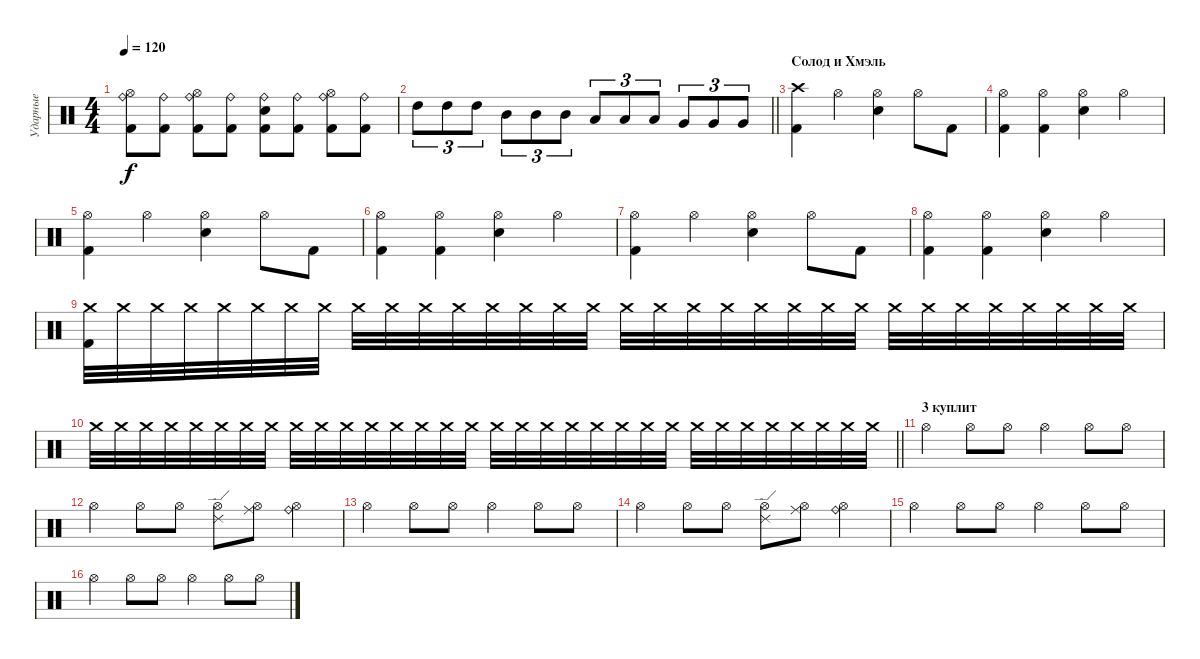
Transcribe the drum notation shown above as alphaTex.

\track ("Ударные" "Ударные") {instrument percussion}
\staff {score}
\articulation defaults
\ts (4 4)
\tempo 120
\clef neutral
\ks c
("Kick (hit) 2" "Ride (bell)" "Hi-Hat (open)").8{dy f} ("Kick (hit) 2" "Ride (bell)").8 ("Kick (hit) 2" "Ride (bell)" "Hi-Hat (open)").8 ("Kick (hit) 2" "Ride (bell)").8 ("Kick (hit) 2" "Ride (bell)" "Snare (hit) 2").8 ("Kick (hit) 2" "Ride (bell)").8 ("Kick (hit) 2" "Ride (bell)" "Hi-Hat (open)").8 ("Kick (hit) 2" "Ride (bell)").8 |
\barLineRight lightlight "High Tom (hit)".8{tu (3 2) volume 16} "High Tom (hit)".8{tu (3 2)} "High Tom (hit)".8{tu (3 2)} "Mid Tom (hit)".8{tu (3 2)} "Mid Tom (hit)".8{tu (3 2)} "Mid Tom (hit)".8{tu (3 2)} "Low Tom (hit)".8{tu (3 2)} "Low Tom (hit)".8{tu (3 2)} "Low Tom (hit)".8{tu (3 2)} "Very Low Tom (hit)".8{tu (3 2)} "Very Low Tom (hit)".8{tu (3 2)} "Very Low Tom (hit)".8{tu (3 2)}
|
\section ("" "Солод и Хмэль")
("Kick (hit) 2" "Crash high (hit)").4{volume 16} "Hi-Hat (open)".4 ("Snare (hit) 2" "Hi-Hat (open)").4 "Hi-Hat (open)".8 "Kick (hit) 2".8 |
("Kick (hit) 2" "Hi-Hat (open)").4 ("Kick (hit) 2" "Hi-Hat (open)").4 ("Snare (hit) 2" "Hi-Hat (open)").4 "Hi-Hat (open)".4 |
("Kick (hit) 2" "Hi-Hat (open)").4 "Hi-Hat (open)".4 ("Snare (hit) 2" "Hi-Hat (open)").4 "Hi-Hat (open)".8 "Kick (hit) 2".8 |
("Kick (hit) 2" "Hi-Hat (open)").4 ("Kick (hit) 2" "Hi-Hat (open)").4 ("Snare (hit) 2" "Hi-Hat (open)").4 "Hi-Hat (open)".4 |
("Hi-Hat (open)" "Kick (hit) 2").4 "Hi-Hat (open)".4 ("Snare (hit) 2" "Hi-Hat (open)").4 "Hi-Hat (open)".8 "Kick (hit) 2".8 |
("Kick (hit) 2" "Hi-Hat (open)").4 ("Kick (hit) 2" "Hi-Hat (open)").4 ("Snare (hit) 2" "Hi-Hat (open)").4 "Hi-Hat (open)".4 |
("Crash medium (hit)" "Kick (hit) 2").32{volume 1} "Crash medium (hit)".32 "Crash medium (hit)".32 "Crash medium (hit)".32{volume 3} "Crash medium (hit)".32 "Crash medium (hit)".32 "Crash medium (hit)".32{volume 4} "Crash medium (hit)".32 "Crash medium (hit)".32 "Crash medium (hit)".32{volume 5} "Crash medium (hit)".32 "Crash medium (hit)".32 "Crash medium (hit)".32{volume 6} "Crash medium (hit)".32 "Crash medium (hit)".32 "Crash medium (hit)".32{volume 7} "Crash medium (hit)".32 "Crash medium (hit)".32 "Crash medium (hit)".32 "Crash medium (hit)".32{volume 7} "Crash medium (hit)".32 "Crash medium (hit)".32 "Crash medium (hit)".32 "Crash medium (hit)".32{volume 8} "Crash medium (hit)".32 "Crash medium (hit)".32 "Crash medium (hit)".32 "Crash medium (hit)".32{volume 9} "Crash medium (hit)".32 "Crash medium (hit)".32 "Crash medium (hit)".32 "Crash medium (hit)".32{volume 9} |
\barLineRight lightlight "Crash medium (hit)".32 "Crash medium (hit)".32 "Crash medium (hit)".32 "Crash medium (hit)".32{volume 10} "Crash medium (hit)".32 "Crash medium (hit)".32 "Crash medium (hit)".32 "Crash medium (hit)".32{volume 10} "Crash medium (hit)".32 "Crash medium (hit)".32 "Crash medium (hit)".32 "Crash medium (hit)".32{volume 13} "Crash medium (hit)".32 "Crash medium (hit)".32 "Crash medium (hit)".32 "Crash medium (hit)".32 "Crash medium (hit)".32 "Crash medium (hit)".32 "Crash medium (hit)".32{volume 10} "Crash medium (hit)".32 "Crash medium (hit)".32 "Crash medium (hit)".32 "Crash medium (hit)".32{volume 10} "Crash medium (hit)".32 "Crash medium (hit)".32 "Crash medium (hit)".32 "Crash medium (hit)".32{volume 13} "Crash medium (hit)".32 "Crash medium (hit)".32 "Crash medium (hit)".32 "Crash medium (hit)".32{volume 16} "Crash medium (hit)".32{volume 16}
|
\section ("" "3 куплит")
"Hi-Hat (open)".4 "Hi-Hat (open)".8 "Hi-Hat (open)".8 "Hi-Hat (open)".4 "Hi-Hat (open)".8 "Hi-Hat (open)".8 |
"Hi-Hat (open)".4 "Hi-Hat (open)".8 "Hi-Hat (open)".8 ("Hi-Hat (open)" "Ride (edge) 2").8 ("Hi-Hat (open)" "Ride (middle)").8 ("Hi-Hat (open)" "Ride (bell)").4 |
"Hi-Hat (open)".4 "Hi-Hat (open)".8 "Hi-Hat (open)".8 "Hi-Hat (open)".4 "Hi-Hat (open)".8 "Hi-Hat (open)".8 |
"Hi-Hat (open)".4 "Hi-Hat (open)".8 "Hi-Hat (open)".8 ("Hi-Hat (open)" "Ride (edge) 2").8 ("Hi-Hat (open)" "Ride (middle)").8 ("Hi-Hat (open)" "Ride (bell)").4 |
"Hi-Hat (open)".4 "Hi-Hat (open)".8 "Hi-Hat (open)".8 "Hi-Hat (open)".4 "Hi-Hat (open)".8 "Hi-Hat (open)".8 |
"Hi-Hat (open)".4 "Hi-Hat (open)".8 "Hi-Hat (open)".8 "Hi-Hat (open)".4 "Hi-Hat (open)".8 "Hi-Hat (open)".8
